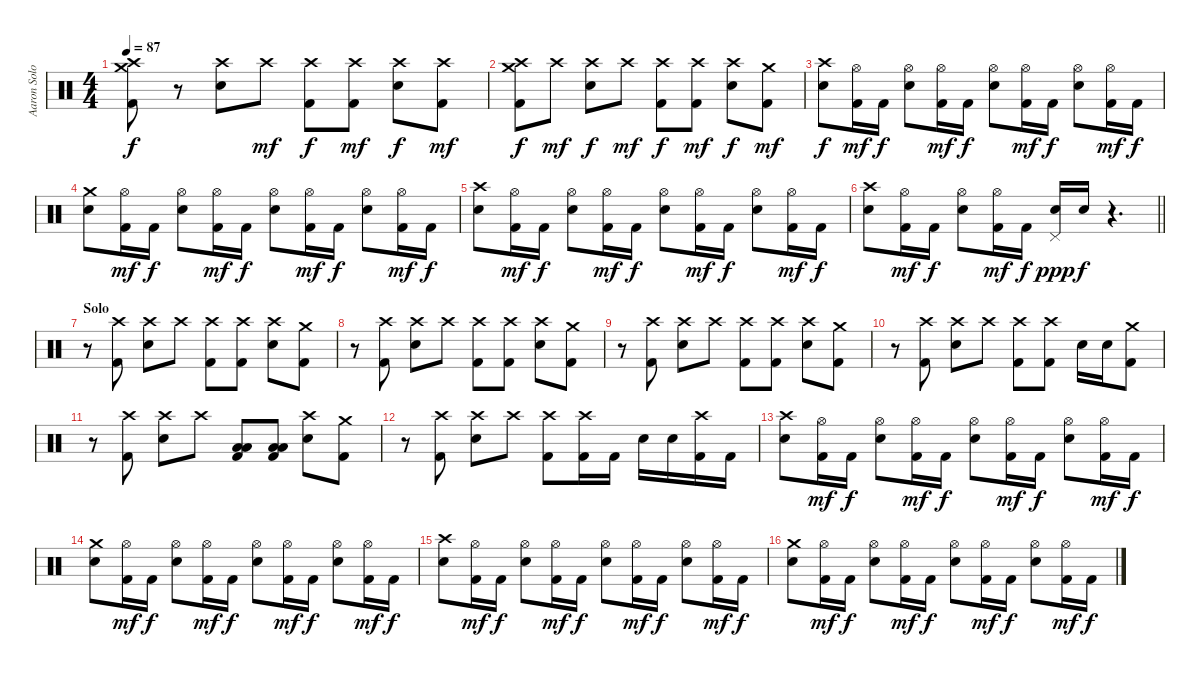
\track ("Aaron Solowoniuk" "Aaron Solo") {instrument percussion}
\staff {score}
\articulation defaults
\ts (4 4)
\tempo 87
\clef neutral
\ks c
("Crash high (hit)" "Crash medium (hit)" "Kick (hit) 2").8{dy f} r.8 ("Crash high (hit)" "Snare (hit) 2").8 "Crash high (hit)".8{dy mf} ("Crash high (hit)" "Kick (hit) 2").8{dy f} ("Crash high (hit)" "Kick (hit) 2").8{dy mf} ("Crash high (hit)" "Snare (hit) 2").8{dy f} ("Crash high (hit)" "Kick (hit) 2").8{dy mf} |
("Crash high (hit)" "Crash medium (hit)" "Kick (hit) 2").8{dy f} "Crash high (hit)".8{dy mf} ("Crash high (hit)" "Snare (hit) 2").8{dy f} "Crash high (hit)".8{dy mf} ("Crash high (hit)" "Kick (hit) 2").8{dy f} ("Crash high (hit)" "Kick (hit) 2").8{dy mf} ("Crash high (hit)" "Snare (hit) 2").8{dy f} ("Crash medium (hit)" "Kick (hit) 2").8{dy mf} |
("Crash high (hit)" "Snare (hit) 2").8{dy f} ("Hi-Hat (open)" "Kick (hit) 2").16{dy mf} "Kick (hit) 2".16{dy f} ("Hi-Hat (open)" "Snare (hit) 2").8 ("Hi-Hat (open)" "Kick (hit) 2").16{dy mf} "Kick (hit) 2".16{dy f} ("Hi-Hat (open)" "Snare (hit) 2").8 ("Hi-Hat (open)" "Kick (hit) 2").16{dy mf} "Kick (hit) 2".16{dy f} ("Hi-Hat (open)" "Snare (hit) 2").8 ("Hi-Hat (open)" "Kick (hit) 2").16{dy mf} "Kick (hit) 2".16{dy f} |
("Crash medium (hit)" "Snare (hit) 2").8 ("Hi-Hat (open)" "Kick (hit) 2").16{dy mf} "Kick (hit) 2".16{dy f} ("Hi-Hat (open)" "Snare (hit) 2").8 ("Hi-Hat (open)" "Kick (hit) 2").16{dy mf} "Kick (hit) 2".16{dy f} ("Hi-Hat (open)" "Snare (hit) 2").8 ("Hi-Hat (open)" "Kick (hit) 2").16{dy mf} "Kick (hit) 2".16{dy f} ("Hi-Hat (open)" "Snare (hit) 2").8 ("Hi-Hat (open)" "Kick (hit) 2").16{dy mf} "Kick (hit) 2".16{dy f} |
("Crash high (hit)" "Snare (hit) 2").8 ("Hi-Hat (open)" "Kick (hit) 2").16{dy mf} "Kick (hit) 2".16{dy f} ("Hi-Hat (open)" "Snare (hit) 2").8 ("Hi-Hat (open)" "Kick (hit) 2").16{dy mf} "Kick (hit) 2".16{dy f} ("Hi-Hat (open)" "Snare (hit) 2").8 ("Hi-Hat (open)" "Kick (hit) 2").16{dy mf} "Kick (hit) 2".16{dy f} ("Hi-Hat (open)" "Snare (hit) 2").8 ("Hi-Hat (open)" "Kick (hit) 2").16{dy mf} "Kick (hit) 2".16{dy f} |
\barLineRight lightlight
("Crash high (hit)" "Snare (hit) 2").8 ("Hi-Hat (open)" "Kick (hit) 2").16{dy mf} "Kick (hit) 2".16{dy f} ("Hi-Hat (open)" "Snare (hit) 2").8 ("Hi-Hat (open)" "Kick (hit) 2").16{dy mf} "Kick (hit) 2".16{dy f} ("Pedal Hi-Hat (hit)" "Snare (hit) 2").16{dy ppp} "Snare (hit) 2".16{dy f} r.4{d} |
\section ("" "Solo")
r.8 ("Crash high (hit)" "Kick (hit) 2").8 ("Crash high (hit)" "Snare (hit) 2").8 "Crash high (hit)".8 ("Crash high (hit)" "Kick (hit) 2").8 ("Crash high (hit)" "Kick (hit) 2").8 ("Crash high (hit)" "Snare (hit) 2").8 ("Crash medium (hit)" "Kick (hit) 2").8 |
r.8 ("Crash high (hit)" "Kick (hit) 2").8 ("Crash high (hit)" "Snare (hit) 2").8 "Crash high (hit)".8 ("Crash high (hit)" "Kick (hit) 2").8 ("Crash high (hit)" "Kick (hit) 2").8 ("Crash high (hit)" "Snare (hit) 2").8 ("Crash medium (hit)" "Kick (hit) 2").8 |
r.8 ("Crash high (hit)" "Kick (hit) 2").8 ("Crash high (hit)" "Snare (hit) 2").8 "Crash high (hit)".8 ("Crash high (hit)" "Kick (hit) 2").8 ("Crash high (hit)" "Kick (hit) 2").8 ("Crash high (hit)" "Snare (hit) 2").8 ("Crash medium (hit)" "Kick (hit) 2").8 |
r.8 ("Crash high (hit)" "Kick (hit) 2").8 ("Crash high (hit)" "Snare (hit) 2").8 "Crash high (hit)".8 ("Crash high (hit)" "Kick (hit) 2").8 ("Crash high (hit)" "Kick (hit) 2").8 "Snare (hit) 2".16 "Snare (hit) 2".16 ("Crash medium (hit)" "Kick (hit) 2").8 |
r.8 ("Crash high (hit)" "Kick (hit) 2").8 ("Crash high (hit)" "Snare (hit) 2").8 "Crash high (hit)".8 ("Low Floor Tom (hit)" "Low Tom (hit)" "Kick (hit) 2").8 ("Low Floor Tom (hit)" "Low Tom (hit)" "Kick (hit) 2").8 ("Crash high (hit)" "Snare (hit) 2").8 ("Crash medium (hit)" "Kick (hit) 2").8 |
r.8 ("Crash high (hit)" "Kick (hit) 2").8 ("Crash high (hit)" "Snare (hit) 2").8 "Crash high (hit)".8 ("Crash high (hit)" "Kick (hit) 2").8 ("Crash high (hit)" "Kick (hit) 2").16 "Kick (hit) 2".16 "Snare (hit) 2".16 "Snare (hit) 2".16 ("Crash high (hit)" "Kick (hit) 2").16 "Kick (hit) 2".16 |
("Crash high (hit)" "Snare (hit) 2").8 ("Hi-Hat (open)" "Kick (hit) 2").16{dy mf} "Kick (hit) 2".16{dy f} ("Hi-Hat (open)" "Snare (hit) 2").8 ("Hi-Hat (open)" "Kick (hit) 2").16{dy mf} "Kick (hit) 2".16{dy f} ("Hi-Hat (open)" "Snare (hit) 2").8 ("Hi-Hat (open)" "Kick (hit) 2").16{dy mf} "Kick (hit) 2".16{dy f} ("Hi-Hat (open)" "Snare (hit) 2").8 ("Hi-Hat (open)" "Kick (hit) 2").16{dy mf} "Kick (hit) 2".16{dy f} |
("Crash medium (hit)" "Snare (hit) 2").8 ("Hi-Hat (open)" "Kick (hit) 2").16{dy mf} "Kick (hit) 2".16{dy f} ("Hi-Hat (open)" "Snare (hit) 2").8 ("Hi-Hat (open)" "Kick (hit) 2").16{dy mf} "Kick (hit) 2".16{dy f} ("Hi-Hat (open)" "Snare (hit) 2").8 ("Hi-Hat (open)" "Kick (hit) 2").16{dy mf} "Kick (hit) 2".16{dy f} ("Hi-Hat (open)" "Snare (hit) 2").8 ("Hi-Hat (open)" "Kick (hit) 2").16{dy mf} "Kick (hit) 2".16{dy f} |
("Crash high (hit)" "Snare (hit) 2").8 ("Hi-Hat (open)" "Kick (hit) 2").16{dy mf} "Kick (hit) 2".16{dy f} ("Hi-Hat (open)" "Snare (hit) 2").8 ("Hi-Hat (open)" "Kick (hit) 2").16{dy mf} "Kick (hit) 2".16{dy f} ("Hi-Hat (open)" "Snare (hit) 2").8 ("Hi-Hat (open)" "Kick (hit) 2").16{dy mf} "Kick (hit) 2".16{dy f} ("Hi-Hat (open)" "Snare (hit) 2").8 ("Hi-Hat (open)" "Kick (hit) 2").16{dy mf} "Kick (hit) 2".16{dy f} |
("Crash medium (hit)" "Snare (hit) 2").8 ("Hi-Hat (open)" "Kick (hit) 2").16{dy mf} "Kick (hit) 2".16{dy f} ("Hi-Hat (open)" "Snare (hit) 2").8 ("Hi-Hat (open)" "Kick (hit) 2").16{dy mf} "Kick (hit) 2".16{dy f} ("Hi-Hat (open)" "Snare (hit) 2").8 ("Hi-Hat (open)" "Kick (hit) 2").16{dy mf} "Kick (hit) 2".16{dy f} ("Hi-Hat (open)" "Snare (hit) 2").8 ("Hi-Hat (open)" "Kick (hit) 2").16{dy mf} "Kick (hit) 2".16{dy f}
